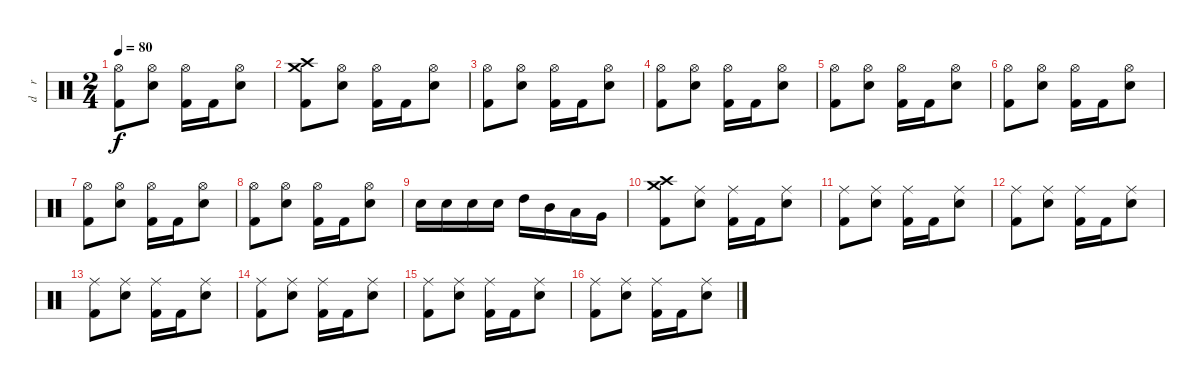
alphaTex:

\track ("d    r     u    m    s" "d    r    ") {instrument percussion}
\staff {score}
\articulation defaults
\ts (2 4)
\tempo 80
\clef neutral
\ks c
("Hi-Hat (open)" "Kick (hit) 2").8{dy f} ("Hi-Hat (open)" "Electric Snare (hit)").8 ("Hi-Hat (open)" "Kick (hit) 2").16 "Kick (hit) 2".16 ("Hi-Hat (open)" "Electric Snare (hit)").8 |
("Crash high (hit)" "Crash medium (hit)" "Kick (hit) 2").8 ("Hi-Hat (open)" "Electric Snare (hit)").8 ("Hi-Hat (open)" "Kick (hit) 2").16 "Kick (hit) 2".16 ("Hi-Hat (open)" "Electric Snare (hit)").8 |
("Hi-Hat (open)" "Kick (hit) 2").8 ("Hi-Hat (open)" "Electric Snare (hit)").8 ("Hi-Hat (open)" "Kick (hit) 2").16 "Kick (hit) 2".16 ("Hi-Hat (open)" "Electric Snare (hit)").8 |
("Hi-Hat (open)" "Kick (hit) 2").8 ("Hi-Hat (open)" "Electric Snare (hit)").8 ("Hi-Hat (open)" "Kick (hit) 2").16 "Kick (hit) 2".16 ("Hi-Hat (open)" "Electric Snare (hit)").8 |
("Hi-Hat (open)" "Kick (hit) 2").8 ("Hi-Hat (open)" "Electric Snare (hit)").8 ("Hi-Hat (open)" "Kick (hit) 2").16 "Kick (hit) 2".16 ("Hi-Hat (open)" "Electric Snare (hit)").8 |
("Hi-Hat (open)" "Kick (hit) 2").8 ("Hi-Hat (open)" "Electric Snare (hit)").8 ("Hi-Hat (open)" "Kick (hit) 2").16 "Kick (hit) 2".16 ("Hi-Hat (open)" "Electric Snare (hit)").8 |
("Hi-Hat (open)" "Kick (hit) 2").8 ("Hi-Hat (open)" "Electric Snare (hit)").8 ("Hi-Hat (open)" "Kick (hit) 2").16 "Kick (hit) 2".16 ("Hi-Hat (open)" "Electric Snare (hit)").8 |
("Hi-Hat (open)" "Kick (hit) 2").8 ("Hi-Hat (open)" "Electric Snare (hit)").8 ("Hi-Hat (open)" "Kick (hit) 2").16 "Kick (hit) 2".16 ("Hi-Hat (open)" "Electric Snare (hit)").8 |
"Electric Snare (hit)".16 "Electric Snare (hit)".16 "Electric Snare (hit)".16 "Electric Snare (hit)".16 "High Tom (hit)".16 "Mid Tom (hit)".16 "Low Tom (hit)".16 "Very Low Tom (hit)".16 |
("Crash high (hit)" "Crash medium (hit)" "Kick (hit) 2").8 ("Ride (middle)" "Electric Snare (hit)").8 ("Ride (middle)" "Kick (hit) 2").16 "Kick (hit) 2".16 ("Ride (middle)" "Electric Snare (hit)").8 |
("Ride (middle)" "Kick (hit) 2").8 ("Ride (middle)" "Electric Snare (hit)").8 ("Ride (middle)" "Kick (hit) 2").16 "Kick (hit) 2".16 ("Ride (middle)" "Electric Snare (hit)").8 |
("Ride (middle)" "Kick (hit) 2").8 ("Ride (middle)" "Electric Snare (hit)").8 ("Ride (middle)" "Kick (hit) 2").16 "Kick (hit) 2".16 ("Ride (middle)" "Electric Snare (hit)").8 |
("Ride (middle)" "Kick (hit) 2").8 ("Ride (middle)" "Electric Snare (hit)").8 ("Ride (middle)" "Kick (hit) 2").16 "Kick (hit) 2".16 ("Ride (middle)" "Electric Snare (hit)").8 |
("Ride (middle)" "Kick (hit) 2").8 ("Ride (middle)" "Electric Snare (hit)").8 ("Ride (middle)" "Kick (hit) 2").16 "Kick (hit) 2".16 ("Ride (middle)" "Electric Snare (hit)").8 |
("Ride (middle)" "Kick (hit) 2").8 ("Ride (middle)" "Electric Snare (hit)").8 ("Ride (middle)" "Kick (hit) 2").16 "Kick (hit) 2".16 ("Ride (middle)" "Electric Snare (hit)").8 |
("Ride (middle)" "Kick (hit) 2").8 ("Ride (middle)" "Electric Snare (hit)").8 ("Ride (middle)" "Kick (hit) 2").16 "Kick (hit) 2".16 ("Ride (middle)" "Electric Snare (hit)").8
